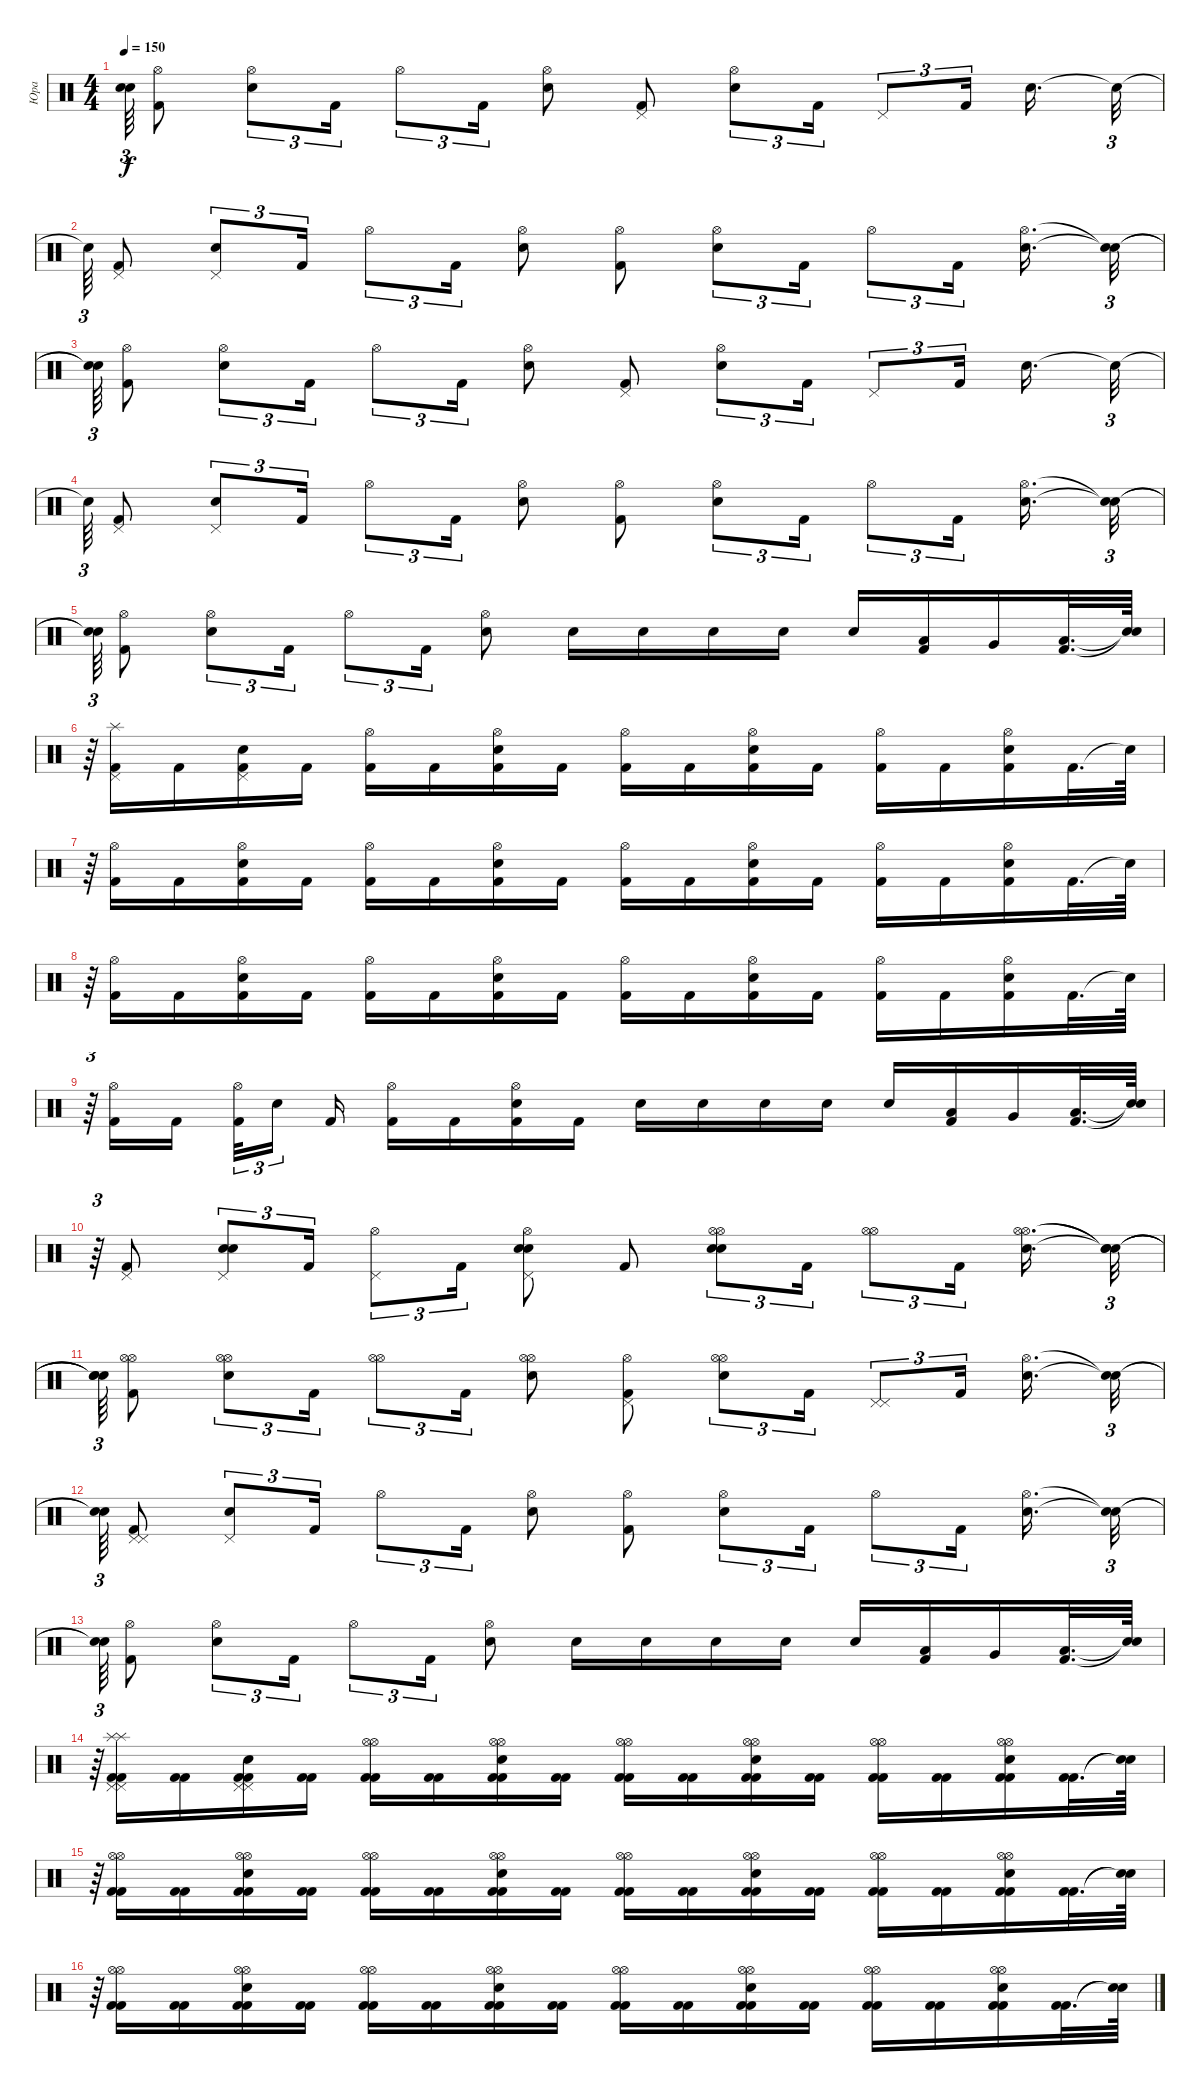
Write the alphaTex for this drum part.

\track ("Юра" "Юра") {instrument percussion}
\staff {score}
\articulation defaults
\ts (4 4)
\tempo 150
\clef neutral
\ks c
("Snare (hit)"{t} "Snare (hit)"{t}).64{tu (3 2) dy f} ("Hi-Hat (open)" "Kick (hit) 2").8 ("Hi-Hat (open)" "Electric Snare (hit)").8{tu (3 2)} "Kick (hit) 2".16{tu (3 2)} "Hi-Hat (open)".8{tu (3 2)} "Kick (hit) 2".16{tu (3 2)} ("Hi-Hat (open)" "Electric Snare (hit)").8 ("Pedal Hi-Hat (hit)" "Kick (hit) 2").8 ("Hi-Hat (open)" "Electric Snare (hit)").8{tu (3 2)} "Kick (hit) 2".16{tu (3 2)} "Pedal Hi-Hat (hit)".8{tu (3 2)} "Kick (hit) 2".16{tu (3 2) beam splitsecondary} "Electric Snare (hit)".16{d} "Snare (hit)"{t}.32{tu (3 2)} |
"Snare (hit)"{t}.64{tu (3 2)} ("Pedal Hi-Hat (hit)" "Kick (hit) 2").8 ("Pedal Hi-Hat (hit)" "Electric Snare (hit)").8{tu (3 2)} "Kick (hit) 2".16{tu (3 2)} "Hi-Hat (open)".8{tu (3 2)} "Kick (hit) 2".16{tu (3 2)} ("Hi-Hat (open)" "Electric Snare (hit)").8 ("Hi-Hat (open)" "Kick (hit) 2").8 ("Hi-Hat (open)" "Electric Snare (hit)").8{tu (3 2)} "Kick (hit) 2".16{tu (3 2)} "Hi-Hat (open)".8{tu (3 2)} "Kick (hit) 2".16{tu (3 2) beam splitsecondary} ("Hi-Hat (open)" "Electric Snare (hit)").16{d} ("Snare (hit)"{t} "Snare (hit)"{t}).32{tu (3 2)} |
("Snare (hit)"{t} "Snare (hit)"{t}).64{tu (3 2)} ("Hi-Hat (open)" "Kick (hit) 2").8 ("Hi-Hat (open)" "Electric Snare (hit)").8{tu (3 2)} "Kick (hit) 2".16{tu (3 2)} "Hi-Hat (open)".8{tu (3 2)} "Kick (hit) 2".16{tu (3 2)} ("Hi-Hat (open)" "Electric Snare (hit)").8 ("Pedal Hi-Hat (hit)" "Kick (hit) 2").8 ("Hi-Hat (open)" "Electric Snare (hit)").8{tu (3 2)} "Kick (hit) 2".16{tu (3 2)} "Pedal Hi-Hat (hit)".8{tu (3 2)} "Kick (hit) 2".16{tu (3 2) beam splitsecondary} "Electric Snare (hit)".16{d} "Snare (hit)"{t}.32{tu (3 2)} |
"Snare (hit)"{t}.64{tu (3 2)} ("Pedal Hi-Hat (hit)" "Kick (hit) 2").8 ("Pedal Hi-Hat (hit)" "Electric Snare (hit)").8{tu (3 2)} "Kick (hit) 2".16{tu (3 2)} "Hi-Hat (open)".8{tu (3 2)} "Kick (hit) 2".16{tu (3 2)} ("Hi-Hat (open)" "Electric Snare (hit)").8 ("Hi-Hat (open)" "Kick (hit) 2").8 ("Hi-Hat (open)" "Electric Snare (hit)").8{tu (3 2)} "Kick (hit) 2".16{tu (3 2)} "Hi-Hat (open)".8{tu (3 2)} "Kick (hit) 2".16{tu (3 2) beam splitsecondary} ("Hi-Hat (open)" "Electric Snare (hit)").16{d} ("Snare (hit)"{t} "Snare (hit)"{t}).32{tu (3 2)} |
("Snare (hit)"{t} "Snare (hit)"{t}).64{tu (3 2)} ("Hi-Hat (open)" "Kick (hit) 2").8 ("Hi-Hat (open)" "Electric Snare (hit)").8{tu (3 2)} "Kick (hit) 2".16{tu (3 2)} "Hi-Hat (open)".8{tu (3 2)} "Kick (hit) 2".16{tu (3 2)} ("Hi-Hat (open)" "Electric Snare (hit)").8 "Electric Snare (hit)".16 "Electric Snare (hit)".16 "Electric Snare (hit)".16 "Electric Snare (hit)".16 "Electric Snare (hit)".16 ("Kick (hit) 2" "Low Tom (hit)").16 "Very Low Tom (hit)".16 ("Kick (hit) 2" "Low Floor Tom (hit)").32{d} ("Snare (hit)"{t} "Snare (hit)"{t}).64 |
r.64{tu (3 2)} ("Kick (hit) 2" "Pedal Hi-Hat (hit)" "Splash (hit)").16 "Kick (hit) 2".16 ("Kick (hit) 2" "Pedal Hi-Hat (hit)" "Electric Snare (hit)").16 "Kick (hit) 2".16 ("Kick (hit) 2" "Hi-Hat (open)").16 "Kick (hit) 2".16 ("Kick (hit) 2" "Hi-Hat (open)" "Electric Snare (hit)").16 "Kick (hit) 2".16 ("Hi-Hat (open)" "Kick (hit) 2").16 "Kick (hit) 2".16 ("Kick (hit) 2" "Hi-Hat (open)" "Electric Snare (hit)").16 "Kick (hit) 2".16 ("Kick (hit) 2" "Hi-Hat (open)").16 "Kick (hit) 2".16 ("Kick (hit) 2" "Hi-Hat (open)" "Electric Snare (hit)").16 "Kick (hit) 2".32{d} "Snare (hit)"{t}.64 |
r.64{tu (3 2)} ("Kick (hit) 2" "Hi-Hat (open)").16 "Kick (hit) 2".16 ("Kick (hit) 2" "Hi-Hat (open)" "Electric Snare (hit)").16 "Kick (hit) 2".16 ("Kick (hit) 2" "Hi-Hat (open)").16 "Kick (hit) 2".16 ("Kick (hit) 2" "Hi-Hat (open)" "Electric Snare (hit)").16 "Kick (hit) 2".16 ("Kick (hit) 2" "Hi-Hat (open)").16 "Kick (hit) 2".16 ("Kick (hit) 2" "Hi-Hat (open)" "Electric Snare (hit)").16 "Kick (hit) 2".16 ("Kick (hit) 2" "Hi-Hat (open)").16 "Kick (hit) 2".16 ("Kick (hit) 2" "Hi-Hat (open)" "Electric Snare (hit)").16 "Kick (hit) 2".32{d} "Snare (hit)"{t}.64 |
r.64{tu (3 2)} ("Kick (hit) 2" "Hi-Hat (open)").16 "Kick (hit) 2".16 ("Kick (hit) 2" "Hi-Hat (open)" "Electric Snare (hit)").16 "Kick (hit) 2".16 ("Kick (hit) 2" "Hi-Hat (open)").16 "Kick (hit) 2".16 ("Kick (hit) 2" "Hi-Hat (open)" "Electric Snare (hit)").16 "Kick (hit) 2".16 ("Kick (hit) 2" "Hi-Hat (open)").16 "Kick (hit) 2".16 ("Kick (hit) 2" "Hi-Hat (open)" "Electric Snare (hit)").16 "Kick (hit) 2".16 ("Kick (hit) 2" "Hi-Hat (open)").16 "Kick (hit) 2".16 ("Kick (hit) 2" "Hi-Hat (open)" "Electric Snare (hit)").16 "Kick (hit) 2".32{d} "Snare (hit)"{t}.64 |
r.64{tu (3 2)} ("Hi-Hat (open)" "Kick (hit) 2").16 "Kick (hit) 2".16{beam splitsecondary} ("Kick (hit) 2" "Hi-Hat (open)").32{tu (3 2)} "Electric Snare (hit)".16{tu (3 2) beam splitsecondary} "Kick (hit) 2".16 ("Hi-Hat (open)" "Kick (hit) 2").16 "Kick (hit) 2".16 ("Kick (hit) 2" "Hi-Hat (open)" "Electric Snare (hit)").16 "Kick (hit) 2".16 "Electric Snare (hit)".16 "Electric Snare (hit)".16 "Electric Snare (hit)".16 "Electric Snare (hit)".16 "Electric Snare (hit)".16 ("Low Tom (hit)" "Kick (hit) 2").16 "Very Low Tom (hit)".16 ("Kick (hit) 2" "Low Floor Tom (hit)").32{d} ("Snare (hit)"{t} "Snare (hit)"{t}).64 |
r.64{tu (3 2)} ("Kick (hit) 2" "Pedal Hi-Hat (hit)").8 ("Pedal Hi-Hat (hit)" "Electric Snare (hit)" "Electric Snare (hit)").8{tu (3 2)} "Kick (hit) 2".16{tu (3 2)} ("Hi-Hat (open)" "Pedal Hi-Hat (hit)").8{tu (3 2)} "Kick (hit) 2".16{tu (3 2)} ("Hi-Hat (open)" "Electric Snare (hit)" "Electric Snare (hit)" "Pedal Hi-Hat (hit)").8 "Kick (hit) 2".8 ("Electric Snare (hit)" "Electric Snare (hit)" "Hi-Hat (open)" "Hi-Hat (open)").8{tu (3 2)} "Kick (hit) 2".16{tu (3 2)} ("Hi-Hat (open)" "Hi-Hat (open)").8{tu (3 2)} "Kick (hit) 2".16{tu (3 2) beam splitsecondary} ("Hi-Hat (open)" "Electric Snare (hit)" "Hi-Hat (open)").16{d} ("Snare (hit)"{t} "Snare (hit)"{t} "Snare (hit)"{t}).32{tu (3 2)} |
("Snare (hit)"{t} "Snare (hit)"{t} "Snare (hit)"{t}).64{tu (3 2)} ("Hi-Hat (open)" "Kick (hit) 2" "Hi-Hat (open)").8 ("Hi-Hat (open)" "Electric Snare (hit)" "Hi-Hat (open)").8{tu (3 2)} "Kick (hit) 2".16{tu (3 2)} ("Hi-Hat (open)" "Hi-Hat (open)").8{tu (3 2)} "Kick (hit) 2".16{tu (3 2)} ("Hi-Hat (open)" "Electric Snare (hit)" "Hi-Hat (open)").8 ("Pedal Hi-Hat (hit)" "Hi-Hat (open)" "Kick (hit) 2").8 ("Hi-Hat (open)" "Hi-Hat (open)" "Electric Snare (hit)").8{tu (3 2)} "Kick (hit) 2".16{tu (3 2)} ("Pedal Hi-Hat (hit)" "Pedal Hi-Hat (hit)").8{tu (3 2)} "Kick (hit) 2".16{tu (3 2) beam splitsecondary} ("Hi-Hat (open)" "Electric Snare (hit)").16{d} ("Snare (hit)"{t} "Snare (hit)"{t}).32{tu (3 2)} |
("Snare (hit)"{t} "Snare (hit)"{t}).64{tu (3 2)} ("Kick (hit) 2" "Pedal Hi-Hat (hit)" "Pedal Hi-Hat (hit)").8 ("Pedal Hi-Hat (hit)" "Electric Snare (hit)").8{tu (3 2)} "Kick (hit) 2".16{tu (3 2)} "Hi-Hat (open)".8{tu (3 2)} "Kick (hit) 2".16{tu (3 2)} ("Hi-Hat (open)" "Electric Snare (hit)").8 ("Kick (hit) 2" "Hi-Hat (open)").8 ("Electric Snare (hit)" "Hi-Hat (open)").8{tu (3 2)} "Kick (hit) 2".16{tu (3 2)} "Hi-Hat (open)".8{tu (3 2)} "Kick (hit) 2".16{tu (3 2) beam splitsecondary} ("Hi-Hat (open)" "Electric Snare (hit)").16{d} ("Snare (hit)"{t} "Snare (hit)"{t}).32{tu (3 2)} |
("Snare (hit)"{t} "Snare (hit)"{t}).64{tu (3 2)} ("Hi-Hat (open)" "Kick (hit) 2").8 ("Hi-Hat (open)" "Electric Snare (hit)").8{tu (3 2)} "Kick (hit) 2".16{tu (3 2)} "Hi-Hat (open)".8{tu (3 2)} "Kick (hit) 2".16{tu (3 2)} ("Electric Snare (hit)" "Hi-Hat (open)").8 "Electric Snare (hit)".16 "Electric Snare (hit)".16 "Electric Snare (hit)".16 "Electric Snare (hit)".16 "Electric Snare (hit)".16 ("Kick (hit) 2" "Low Tom (hit)").16 "Very Low Tom (hit)".16 ("Kick (hit) 2" "Low Floor Tom (hit)").32{d} ("Snare (hit)"{t} "Snare (hit)"{t}).64 |
r.64{tu (3 2)} ("Pedal Hi-Hat (hit)" "Splash (hit)" "Pedal Hi-Hat (hit)" "Splash (hit)" "Kick (hit) 2" "Kick (hit) 2").16 ("Kick (hit) 2" "Kick (hit) 2").16 ("Kick (hit) 2" "Electric Snare (hit)" "Pedal Hi-Hat (hit)" "Pedal Hi-Hat (hit)" "Kick (hit) 2").16 ("Kick (hit) 2" "Kick (hit) 2").16 ("Kick (hit) 2" "Hi-Hat (open)" "Hi-Hat (open)" "Kick (hit) 2").16 ("Kick (hit) 2" "Kick (hit) 2").16 ("Electric Snare (hit)" "Hi-Hat (open)" "Kick (hit) 2" "Kick (hit) 2" "Hi-Hat (open)").16 ("Kick (hit) 2" "Kick (hit) 2").16 ("Hi-Hat (open)" "Kick (hit) 2" "Hi-Hat (open)" "Kick (hit) 2").16 ("Kick (hit) 2" "Kick (hit) 2").16 ("Kick (hit) 2" "Electric Snare (hit)" "Kick (hit) 2" "Hi-Hat (open)" "Hi-Hat (open)").16 ("Kick (hit) 2" "Kick (hit) 2").16 ("Hi-Hat (open)" "Hi-Hat (open)" "Kick (hit) 2" "Kick (hit) 2").16 ("Kick (hit) 2" "Kick (hit) 2").16 ("Electric Snare (hit)" "Kick (hit) 2" "Hi-Hat (open)" "Kick (hit) 2" "Hi-Hat (open)").16 ("Kick (hit) 2" "Kick (hit) 2").32{d} ("Snare (hit)"{t} "Snare (hit)"{t}).64 |
r.64{tu (3 2)} ("Kick (hit) 2" "Hi-Hat (open)" "Hi-Hat (open)" "Kick (hit) 2").16 ("Kick (hit) 2" "Kick (hit) 2").16 ("Kick (hit) 2" "Hi-Hat (open)" "Kick (hit) 2" "Electric Snare (hit)" "Hi-Hat (open)").16 ("Kick (hit) 2" "Kick (hit) 2").16 ("Hi-Hat (open)" "Kick (hit) 2" "Kick (hit) 2" "Hi-Hat (open)").16 ("Kick (hit) 2" "Kick (hit) 2").16 ("Kick (hit) 2" "Hi-Hat (open)" "Electric Snare (hit)" "Hi-Hat (open)" "Kick (hit) 2").16 ("Kick (hit) 2" "Kick (hit) 2").16 ("Hi-Hat (open)" "Kick (hit) 2" "Kick (hit) 2" "Hi-Hat (open)").16 ("Kick (hit) 2" "Kick (hit) 2").16 ("Kick (hit) 2" "Hi-Hat (open)" "Hi-Hat (open)" "Electric Snare (hit)" "Kick (hit) 2").16 ("Kick (hit) 2" "Kick (hit) 2").16 ("Hi-Hat (open)" "Hi-Hat (open)" "Kick (hit) 2" "Kick (hit) 2").16 ("Kick (hit) 2" "Kick (hit) 2").16 ("Hi-Hat (open)" "Hi-Hat (open)" "Kick (hit) 2" "Electric Snare (hit)" "Kick (hit) 2").16 ("Kick (hit) 2" "Kick (hit) 2").32{d} ("Snare (hit)"{t} "Snare (hit)"{t}).64 |
r.64{tu (3 2)} ("Kick (hit) 2" "Hi-Hat (open)" "Hi-Hat (open)" "Kick (hit) 2").16 ("Kick (hit) 2" "Kick (hit) 2").16 ("Electric Snare (hit)" "Kick (hit) 2" "Kick (hit) 2" "Hi-Hat (open)" "Hi-Hat (open)").16 ("Kick (hit) 2" "Kick (hit) 2").16 ("Hi-Hat (open)" "Kick (hit) 2" "Hi-Hat (open)" "Kick (hit) 2").16 ("Kick (hit) 2" "Kick (hit) 2").16 ("Hi-Hat (open)" "Hi-Hat (open)" "Kick (hit) 2" "Electric Snare (hit)" "Kick (hit) 2").16 ("Kick (hit) 2" "Kick (hit) 2").16 ("Hi-Hat (open)" "Kick (hit) 2" "Kick (hit) 2" "Hi-Hat (open)").16 ("Kick (hit) 2" "Kick (hit) 2").16 ("Hi-Hat (open)" "Kick (hit) 2" "Electric Snare (hit)" "Kick (hit) 2" "Hi-Hat (open)").16 ("Kick (hit) 2" "Kick (hit) 2").16 ("Kick (hit) 2" "Hi-Hat (open)" "Hi-Hat (open)" "Kick (hit) 2").16 ("Kick (hit) 2" "Kick (hit) 2").16 ("Kick (hit) 2" "Hi-Hat (open)" "Electric Snare (hit)" "Hi-Hat (open)" "Kick (hit) 2").16 ("Kick (hit) 2" "Kick (hit) 2").32{d} ("Snare (hit)"{t} "Snare (hit)"{t}).64
